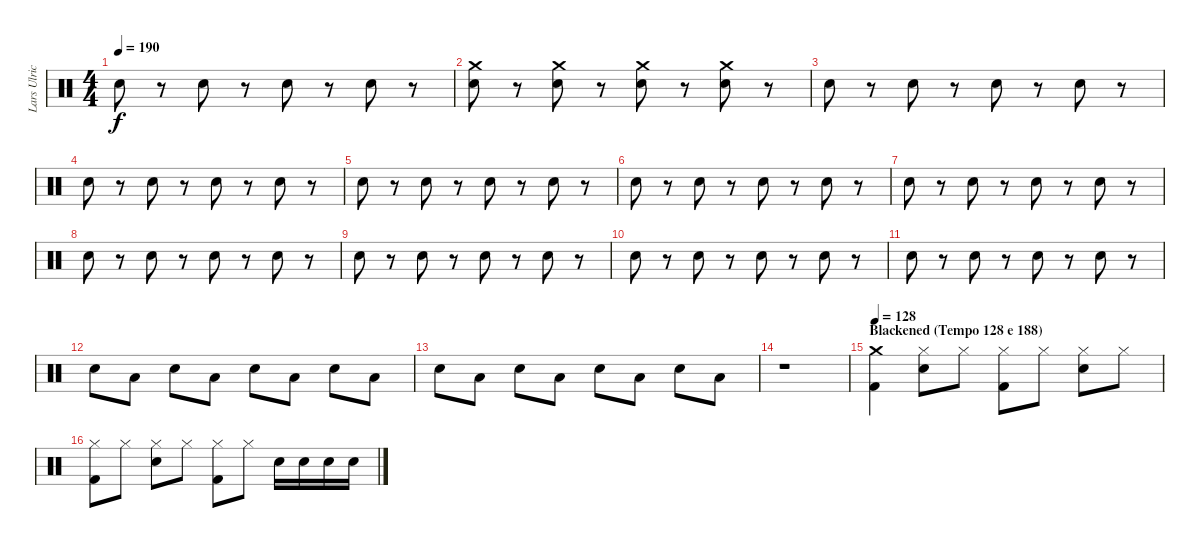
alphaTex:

\track ("Lars Ulrich (Drums)" "Lars Ulric") {instrument percussion}
\staff {score}
\articulation defaults
\ts (4 4)
\tempo 190
\clef neutral
\ks c "Electric Snare (hit)".8{dy f}
r.8 "Electric Snare (hit)".8 r.8 "Electric Snare (hit)".8 r.8 "Electric Snare (hit)".8 r.8 |
("Crash medium (hit)" "Electric Snare (hit)").8 r.8 ("Crash medium (hit)" "Electric Snare (hit)").8 r.8 ("Crash medium (hit)" "Electric Snare (hit)").8 r.8 ("Crash medium (hit)" "Electric Snare (hit)").8 r.8 |
"Electric Snare (hit)".8 r.8 "Electric Snare (hit)".8 r.8 "Electric Snare (hit)".8 r.8 "Electric Snare (hit)".8 r.8 |
"Electric Snare (hit)".8 r.8 "Electric Snare (hit)".8 r.8 "Electric Snare (hit)".8 r.8 "Electric Snare (hit)".8 r.8 |
"Electric Snare (hit)".8 r.8 "Electric Snare (hit)".8 r.8 "Electric Snare (hit)".8 r.8 "Electric Snare (hit)".8 r.8 |
"Electric Snare (hit)".8 r.8 "Electric Snare (hit)".8 r.8 "Electric Snare (hit)".8 r.8 "Electric Snare (hit)".8 r.8 |
"Electric Snare (hit)".8 r.8 "Electric Snare (hit)".8 r.8 "Electric Snare (hit)".8 r.8 "Electric Snare (hit)".8 r.8 |
"Electric Snare (hit)".8 r.8 "Electric Snare (hit)".8 r.8 "Electric Snare (hit)".8 r.8 "Electric Snare (hit)".8 r.8 |
"Electric Snare (hit)".8 r.8 "Electric Snare (hit)".8 r.8 "Electric Snare (hit)".8 r.8 "Electric Snare (hit)".8 r.8 |
"Electric Snare (hit)".8 r.8 "Electric Snare (hit)".8 r.8 "Electric Snare (hit)".8 r.8 "Electric Snare (hit)".8 r.8 |
"Electric Snare (hit)".8 r.8 "Electric Snare (hit)".8 r.8 "Electric Snare (hit)".8 r.8 "Electric Snare (hit)".8 r.8 |
"Electric Snare (hit)".8 "Low Tom (hit)".8 "Electric Snare (hit)".8 "Low Tom (hit)".8 "Electric Snare (hit)".8 "Low Tom (hit)".8 "Electric Snare (hit)".8 "Low Tom (hit)".8 |
"Electric Snare (hit)".8 "Low Tom (hit)".8 "Electric Snare (hit)".8 "Low Tom (hit)".8 "Electric Snare (hit)".8 "Low Tom (hit)".8 "Electric Snare (hit)".8 "Low Tom (hit)".8 |
r.1 |
\section ("" "Blackened (Tempo 128 e 188)")
\tempo 128
("Kick (hit) 2" "Crash medium (hit)").4 ("Hi-Hat (closed)" "Snare (hit) 2").8 "Hi-Hat (closed)".8 ("Hi-Hat (closed)" "Kick (hit) 2").8 "Hi-Hat (closed)".8 ("Snare (hit) 2" "Hi-Hat (closed)").8 "Hi-Hat (closed)".8 |
("Hi-Hat (closed)" "Kick (hit) 2").8 "Hi-Hat (closed)".8 ("Snare (hit) 2" "Hi-Hat (closed)").8 "Hi-Hat (closed)".8 ("Hi-Hat (closed)" "Kick (hit) 2").8 "Hi-Hat (closed)".8 "Snare (hit) 2".16 "Snare (hit) 2".16 "Snare (hit) 2".16 "Snare (hit) 2".16
